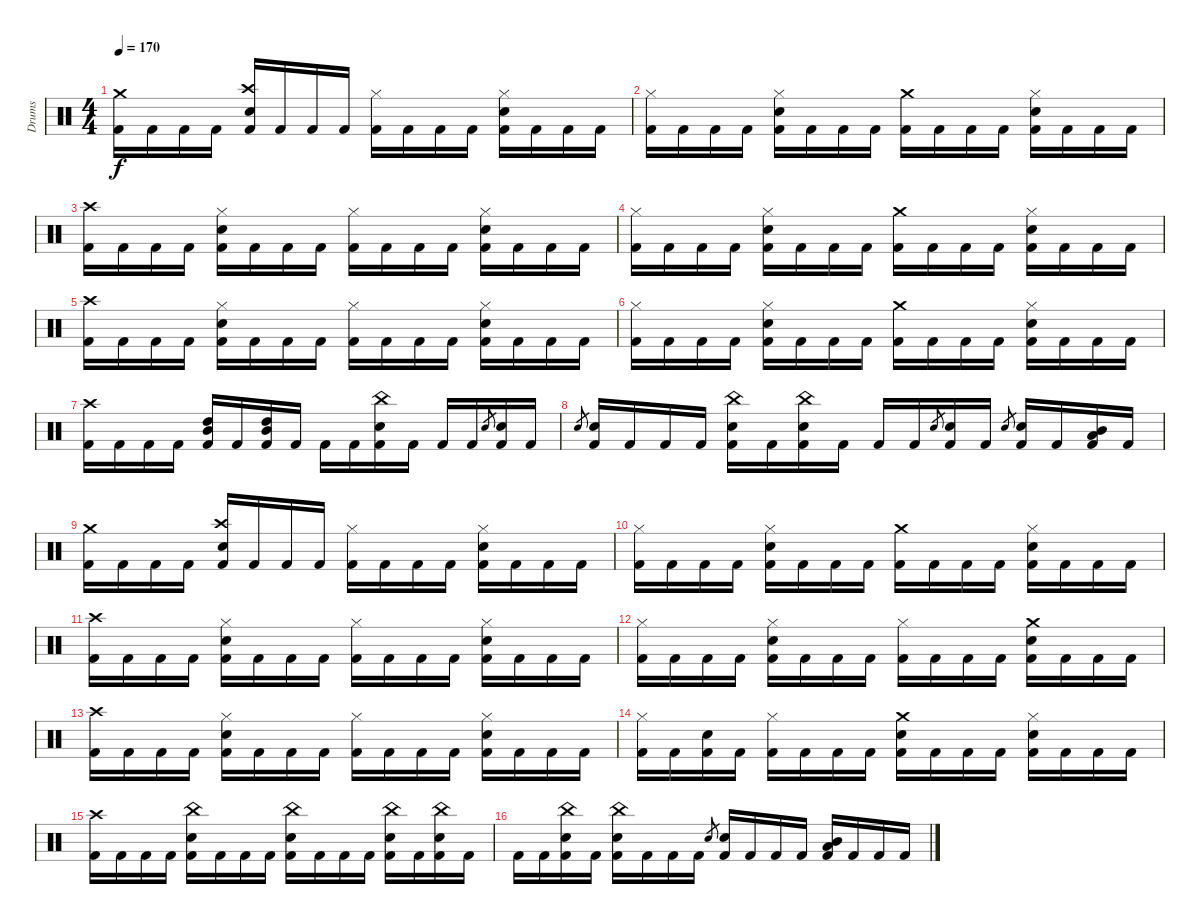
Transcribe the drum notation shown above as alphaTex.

\track ("Drums" "Drums") {instrument percussion}
\staff {score}
\articulation defaults
\ts (4 4)
\tempo 170
\clef neutral
\ks c
("Crash medium (hit)" "Kick (hit) 2").16{dy f} "Kick (hit) 2".16 "Kick (hit) 2".16 "Kick (hit) 2".16 ("Crash high (hit)" "Snare (hit) 2" "Kick (hit) 2").16 "Kick (hit) 2".16 "Kick (hit) 2".16 "Kick (hit) 2".16 ("Hi-Hat (closed)" "Kick (hit) 2").16 "Kick (hit) 2".16 "Kick (hit) 2".16 "Kick (hit) 2".16 ("Hi-Hat (closed)" "Snare (hit) 2" "Kick (hit) 2").16 "Kick (hit) 2".16 "Kick (hit) 2".16 "Kick (hit) 2".16 |
("Hi-Hat (closed)" "Kick (hit) 2").16 "Kick (hit) 2".16 "Kick (hit) 2".16 "Kick (hit) 2".16 ("Hi-Hat (closed)" "Snare (hit) 2" "Kick (hit) 2").16 "Kick (hit) 2".16 "Kick (hit) 2".16 "Kick (hit) 2".16 ("Crash medium (hit)" "Kick (hit) 2").16 "Kick (hit) 2".16 "Kick (hit) 2".16 "Kick (hit) 2".16 ("Hi-Hat (closed)" "Snare (hit) 2" "Kick (hit) 2").16 "Kick (hit) 2".16 "Kick (hit) 2".16 "Kick (hit) 2".16 |
("Crash high (hit)" "Kick (hit) 2").16 "Kick (hit) 2".16 "Kick (hit) 2".16 "Kick (hit) 2".16 ("Hi-Hat (closed)" "Snare (hit) 2" "Kick (hit) 2").16 "Kick (hit) 2".16 "Kick (hit) 2".16 "Kick (hit) 2".16 ("Hi-Hat (closed)" "Kick (hit) 2").16 "Kick (hit) 2".16 "Kick (hit) 2".16 "Kick (hit) 2".16 ("Hi-Hat (closed)" "Snare (hit) 2" "Kick (hit) 2").16 "Kick (hit) 2".16 "Kick (hit) 2".16 "Kick (hit) 2".16 |
("Hi-Hat (closed)" "Kick (hit) 2").16 "Kick (hit) 2".16 "Kick (hit) 2".16 "Kick (hit) 2".16 ("Hi-Hat (closed)" "Snare (hit) 2" "Kick (hit) 2").16 "Kick (hit) 2".16 "Kick (hit) 2".16 "Kick (hit) 2".16 ("Crash medium (hit)" "Kick (hit) 2").16 "Kick (hit) 2".16 "Kick (hit) 2".16 "Kick (hit) 2".16 ("Hi-Hat (closed)" "Snare (hit) 2" "Kick (hit) 2").16 "Kick (hit) 2".16 "Kick (hit) 2".16 "Kick (hit) 2".16 |
("Crash high (hit)" "Kick (hit) 2").16 "Kick (hit) 2".16 "Kick (hit) 2".16 "Kick (hit) 2".16 ("Hi-Hat (closed)" "Snare (hit) 2" "Kick (hit) 2").16 "Kick (hit) 2".16 "Kick (hit) 2".16 "Kick (hit) 2".16 ("Hi-Hat (closed)" "Kick (hit) 2").16 "Kick (hit) 2".16 "Kick (hit) 2".16 "Kick (hit) 2".16 ("Hi-Hat (closed)" "Snare (hit) 2" "Kick (hit) 2").16 "Kick (hit) 2".16 "Kick (hit) 2".16 "Kick (hit) 2".16 |
("Hi-Hat (closed)" "Kick (hit) 2").16 "Kick (hit) 2".16 "Kick (hit) 2".16 "Kick (hit) 2".16 ("Hi-Hat (closed)" "Snare (hit) 2" "Kick (hit) 2").16 "Kick (hit) 2".16 "Kick (hit) 2".16 "Kick (hit) 2".16 ("Crash medium (hit)" "Kick (hit) 2").16 "Kick (hit) 2".16 "Kick (hit) 2".16 "Kick (hit) 2".16 ("Hi-Hat (closed)" "Snare (hit) 2" "Kick (hit) 2").16 "Kick (hit) 2".16 "Kick (hit) 2".16 "Kick (hit) 2".16 |
("Crash high (hit)" "Kick (hit) 2").16 "Kick (hit) 2".16 "Kick (hit) 2".16 "Kick (hit) 2".16 ("High Tom (hit)" "Mid Tom (hit)" "Kick (hit) 2").16 "Kick (hit) 2".16 ("High Tom (hit)" "Mid Tom (hit)" "Kick (hit) 2").16 "Kick (hit) 2".16 "Kick (hit) 2".16 "Kick (hit) 2".16 ("China (hit)" "Snare (hit) 2" "Kick (hit) 2").16 "Kick (hit) 2".16 "Kick (hit) 2".16 "Kick (hit) 2".16 "Snare (hit) 2".8{gr} ("Snare (hit) 2" "Kick (hit) 2").16 "Kick (hit) 2".16 |
"Snare (hit) 2".8{gr} ("Snare (hit) 2" "Kick (hit) 2").16 "Kick (hit) 2".16 "Kick (hit) 2".16 "Kick (hit) 2".16 ("China (hit)" "Snare (hit) 2" "Kick (hit) 2").16 "Kick (hit) 2".16 ("China (hit)" "Snare (hit) 2" "Kick (hit) 2").16 "Kick (hit) 2".16 "Kick (hit) 2".16 "Kick (hit) 2".16 "Snare (hit) 2".8{gr} ("Snare (hit) 2" "Kick (hit) 2").16 "Kick (hit) 2".16 "Snare (hit) 2".8{gr} ("Snare (hit) 2" "Kick (hit) 2").16 "Kick (hit) 2".16 ("Mid Tom (hit)" "Low Tom (hit)" "Kick (hit) 2").16 "Kick (hit) 2".16 |
("Crash medium (hit)" "Kick (hit) 2").16 "Kick (hit) 2".16 "Kick (hit) 2".16 "Kick (hit) 2".16 ("Crash high (hit)" "Snare (hit) 2" "Kick (hit) 2").16 "Kick (hit) 2".16 "Kick (hit) 2".16 "Kick (hit) 2".16 ("Hi-Hat (closed)" "Kick (hit) 2").16 "Kick (hit) 2".16 "Kick (hit) 2".16 "Kick (hit) 2".16 ("Hi-Hat (closed)" "Snare (hit) 2" "Kick (hit) 2").16 "Kick (hit) 2".16 "Kick (hit) 2".16 "Kick (hit) 2".16 |
("Hi-Hat (closed)" "Kick (hit) 2").16 "Kick (hit) 2".16 "Kick (hit) 2".16 "Kick (hit) 2".16 ("Hi-Hat (closed)" "Snare (hit) 2" "Kick (hit) 2").16 "Kick (hit) 2".16 "Kick (hit) 2".16 "Kick (hit) 2".16 ("Crash medium (hit)" "Kick (hit) 2").16 "Kick (hit) 2".16 "Kick (hit) 2".16 "Kick (hit) 2".16 ("Hi-Hat (closed)" "Snare (hit) 2" "Kick (hit) 2").16 "Kick (hit) 2".16 "Kick (hit) 2".16 "Kick (hit) 2".16 |
("Crash high (hit)" "Kick (hit) 2").16 "Kick (hit) 2".16 "Kick (hit) 2".16 "Kick (hit) 2".16 ("Hi-Hat (closed)" "Snare (hit) 2" "Kick (hit) 2").16 "Kick (hit) 2".16 "Kick (hit) 2".16 "Kick (hit) 2".16 ("Hi-Hat (closed)" "Kick (hit) 2").16 "Kick (hit) 2".16 "Kick (hit) 2".16 "Kick (hit) 2".16 ("Hi-Hat (closed)" "Snare (hit) 2" "Kick (hit) 2").16 "Kick (hit) 2".16 "Kick (hit) 2".16 "Kick (hit) 2".16 |
("Hi-Hat (closed)" "Kick (hit) 2").16 "Kick (hit) 2".16 "Kick (hit) 2".16 "Kick (hit) 2".16 ("Hi-Hat (closed)" "Snare (hit) 2" "Kick (hit) 2").16 "Kick (hit) 2".16 "Kick (hit) 2".16 "Kick (hit) 2".16 ("Hi-Hat (closed)" "Kick (hit) 2").16 "Kick (hit) 2".16 "Kick (hit) 2".16 "Kick (hit) 2".16 ("Crash medium (hit)" "Snare (hit) 2" "Kick (hit) 2").16 "Kick (hit) 2".16 "Kick (hit) 2".16 "Kick (hit) 2".16 |
("Crash high (hit)" "Kick (hit) 2").16 "Kick (hit) 2".16 "Kick (hit) 2".16 "Kick (hit) 2".16 ("Hi-Hat (closed)" "Snare (hit) 2" "Kick (hit) 2").16 "Kick (hit) 2".16 "Kick (hit) 2".16 "Kick (hit) 2".16 ("Hi-Hat (closed)" "Kick (hit) 2").16 "Kick (hit) 2".16 "Kick (hit) 2".16 "Kick (hit) 2".16 ("Hi-Hat (closed)" "Snare (hit) 2" "Kick (hit) 2").16 "Kick (hit) 2".16 "Kick (hit) 2".16 "Kick (hit) 2".16 |
("Hi-Hat (closed)" "Kick (hit) 2").16 "Kick (hit) 2".16 ("Snare (hit) 2" "Kick (hit) 2").16 "Kick (hit) 2".16 ("Hi-Hat (closed)" "Kick (hit) 2").16 "Kick (hit) 2".16 "Kick (hit) 2".16 "Kick (hit) 2".16 ("Crash medium (hit)" "Snare (hit) 2" "Kick (hit) 2").16 "Kick (hit) 2".16 "Kick (hit) 2".16 "Kick (hit) 2".16 ("Hi-Hat (closed)" "Snare (hit) 2" "Kick (hit) 2").16 "Kick (hit) 2".16 "Kick (hit) 2".16 "Kick (hit) 2".16 |
("Crash high (hit)" "Kick (hit) 2").16 "Kick (hit) 2".16 "Kick (hit) 2".16 "Kick (hit) 2".16 ("China (hit)" "Snare (hit) 2" "Kick (hit) 2").16 "Kick (hit) 2".16 "Kick (hit) 2".16 "Kick (hit) 2".16 ("China (hit)" "Snare (hit) 2" "Kick (hit) 2").16 "Kick (hit) 2".16 "Kick (hit) 2".16 "Kick (hit) 2".16 ("China (hit)" "Snare (hit) 2" "Kick (hit) 2").16 "Kick (hit) 2".16 ("China (hit)" "Snare (hit) 2" "Kick (hit) 2").16 "Kick (hit) 2".16 |
"Kick (hit) 2".16 "Kick (hit) 2".16 ("China (hit)" "Snare (hit) 2" "Kick (hit) 2").16 "Kick (hit) 2".16 ("China (hit)" "Snare (hit) 2" "Kick (hit) 2").16 "Kick (hit) 2".16 "Kick (hit) 2".16 "Kick (hit) 2".16 "Snare (hit) 2".8{gr} ("Snare (hit) 2" "Kick (hit) 2").16 "Kick (hit) 2".16 "Kick (hit) 2".16 "Kick (hit) 2".16 ("Mid Tom (hit)" "Low Tom (hit)" "Kick (hit) 2").16 "Kick (hit) 2".16 "Kick (hit) 2".16 "Kick (hit) 2".16
